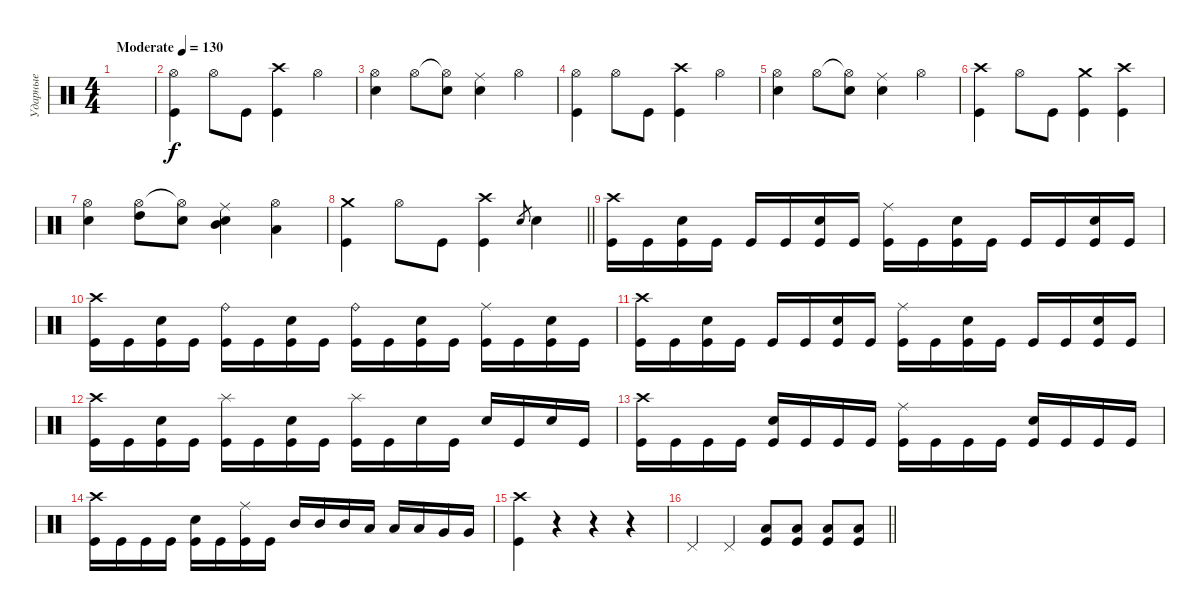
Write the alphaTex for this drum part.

\track ("Ударные" "Ударные") {instrument percussion}
\staff {score}
\articulation defaults
\ts (4 4)
\tempo (130 "Moderate")
\clef neutral
\ks c
|
("Hi-Hat (open)" "Kick (hit)").4 "Hi-Hat (open)".8 "Kick (hit)".8 ("Crash high (hit)" "Kick (hit)").4 "Hi-Hat (open)".4 |
("Electric Snare (hit)" "Hi-Hat (open)").4 "Hi-Hat (open)".8 ("Hi-Hat (open)"{t} "Electric Snare (hit)").8 ("Ride (middle)" "Electric Snare (hit)").4 "Hi-Hat (open)".4 |
("Hi-Hat (open)" "Kick (hit)").4 "Hi-Hat (open)".8 "Kick (hit)".8 ("Crash high (hit)" "Kick (hit)").4 "Hi-Hat (open)".4 |
("Electric Snare (hit)" "Hi-Hat (open)").4 "Hi-Hat (open)".8 ("Hi-Hat (open)"{t} "Electric Snare (hit)").8 ("Ride (middle)" "Electric Snare (hit)").4 "Hi-Hat (open)".4 |
("Crash high (hit)" "Kick (hit)").4 "Hi-Hat (open)".8 "Kick (hit)".8 ("Crash medium (hit)" "Kick (hit)").4 ("Crash high (hit)" "Kick (hit)").4 |
("Electric Snare (hit)" "Hi-Hat (open)").4 ("Hi-Hat (open)" "High Tom (hit)").8 ("Hi-Hat (open)"{t} "Electric Snare (hit)").8 ("Ride (middle)" "Electric Snare (hit)" "Mid Tom (hit)").4 ("Hi-Hat (open)" "Low Tom (hit)").4 |
\barLineRight lightlight
("Crash medium (hit)" "Kick (hit)").4 "Hi-Hat (open)".8 "Kick (hit)".8 ("Crash high (hit)" "Kick (hit)").4 "Electric Snare (hit)".8{gr} "Electric Snare (hit)".4 |
\section ("" " ")
("Crash high (hit)" "Kick (hit)").16 "Kick (hit)".16 ("Electric Snare (hit)" "Kick (hit)").16 "Kick (hit)".16 "Kick (hit)".16 "Kick (hit)".16 ("Electric Snare (hit)" "Kick (hit)").16 "Kick (hit)".16 ("Ride (middle)" "Kick (hit)").16 "Kick (hit)".16 ("Electric Snare (hit)" "Kick (hit)").16 "Kick (hit)".16 "Kick (hit)".16 "Kick (hit)".16 ("Electric Snare (hit)" "Kick (hit)").16 "Kick (hit)".16 |
("Crash high (hit)" "Kick (hit)").16 "Kick (hit)".16 ("Electric Snare (hit)" "Kick (hit)").16 "Kick (hit)".16 ("Ride (bell)" "Kick (hit)").16 "Kick (hit)".16 ("Electric Snare (hit)" "Kick (hit)").16 "Kick (hit)".16 ("Ride (bell)" "Kick (hit)").16 "Kick (hit)".16 ("Electric Snare (hit)" "Kick (hit)").16 "Kick (hit)".16 ("Ride (middle)" "Kick (hit)").16 "Kick (hit)".16 ("Electric Snare (hit)" "Kick (hit)").16 "Kick (hit)".16 |
("Crash high (hit)" "Kick (hit)").16 "Kick (hit)".16 ("Electric Snare (hit)" "Kick (hit)").16 "Kick (hit)".16 "Kick (hit)".16 "Kick (hit)".16 ("Electric Snare (hit)" "Kick (hit)").16 "Kick (hit)".16 ("Ride (middle)" "Kick (hit)").16 "Kick (hit)".16 ("Electric Snare (hit)" "Kick (hit)").16 "Kick (hit)".16 "Kick (hit)".16 "Kick (hit)".16 ("Electric Snare (hit)" "Kick (hit)").16 "Kick (hit)".16 |
("Crash high (hit)" "Kick (hit)").16 "Kick (hit)".16 ("Electric Snare (hit)" "Kick (hit)").16 "Kick (hit)".16 ("Splash (hit)" "Kick (hit)").16 "Kick (hit)".16 ("Electric Snare (hit)" "Kick (hit)").16 "Kick (hit)".16 ("Splash (hit)" "Kick (hit)").16 "Kick (hit)".16 "Electric Snare (hit)".16 "Kick (hit)".16 "Electric Snare (hit)".16 "Kick (hit)".16 "Electric Snare (hit)".16 "Kick (hit)".16 |
("Crash high (hit)" "Kick (hit)").16 "Kick (hit)".16 "Kick (hit)".16 "Kick (hit)".16 ("Electric Snare (hit)" "Kick (hit)").16 "Kick (hit)".16 "Kick (hit)".16 "Kick (hit)".16 ("Ride (middle)" "Kick (hit)").16 "Kick (hit)".16 "Kick (hit)".16 "Kick (hit)".16 ("Electric Snare (hit)" "Kick (hit)").16 "Kick (hit)".16 "Kick (hit)".16 "Kick (hit)".16 |
("Crash high (hit)" "Kick (hit)").16 "Kick (hit)".16 "Kick (hit)".16 "Kick (hit)".16 ("Electric Snare (hit)" "Kick (hit)").16 "Kick (hit)".16 ("Ride (middle)" "Kick (hit)").16 "Kick (hit)".16 "Mid Tom (hit)".16 "Mid Tom (hit)".16 "Mid Tom (hit)".16 "Low Tom (hit)".16 "Low Tom (hit)".16 "Low Tom (hit)".16 "Very Low Tom (hit)".16 "Very Low Tom (hit)".16 |
("Crash high (hit)" "Kick (hit)").4 r.4 r.4 r.4 |
\barLineRight lightlight "Pedal Hi-Hat (hit)".4 "Pedal Hi-Hat (hit)".4
("Low Floor Tom (hit)" "Kick (hit)").8 ("Low Floor Tom (hit)" "Kick (hit)").8 ("Low Floor Tom (hit)" "Kick (hit)").8 ("Low Floor Tom (hit)" "Kick (hit)").8
